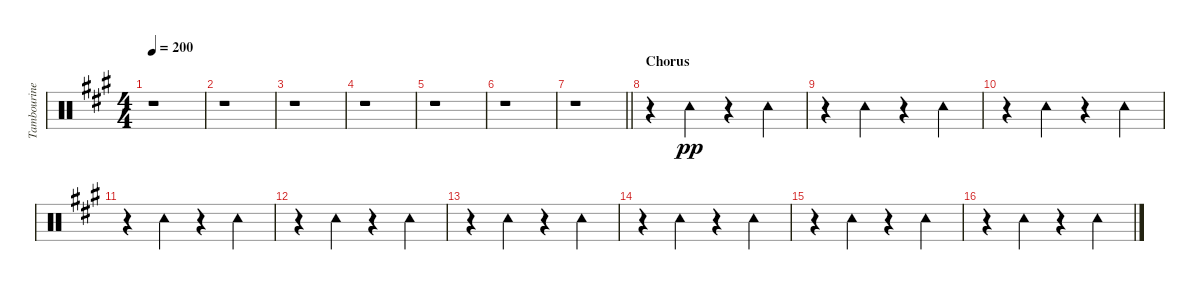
\track ("Tambourine" "Tambourine") {instrument percussion}
\staff {score}
\articulation defaults
\ts (4 4)
\tempo 200
\clef neutral
\ks a
r.1{dy pp} |
r.1 |
r.1 |
r.1 |
r.1 |
r.1 |
\barLineRight lightlight
r.1 |
\section ("" "Chorus")
r.4 "Tambourine (hit)".4 r.4 "Tambourine (hit)".4 |
r.4 "Tambourine (hit)".4 r.4 "Tambourine (hit)".4 |
r.4 "Tambourine (hit)".4 r.4 "Tambourine (hit)".4 |
r.4 "Tambourine (hit)".4 r.4 "Tambourine (hit)".4 |
r.4 "Tambourine (hit)".4 r.4 "Tambourine (hit)".4 |
r.4 "Tambourine (hit)".4 r.4 "Tambourine (hit)".4 |
r.4 "Tambourine (hit)".4 r.4 "Tambourine (hit)".4 |
r.4 "Tambourine (hit)".4 r.4 "Tambourine (hit)".4 |
r.4 "Tambourine (hit)".4 r.4 "Tambourine (hit)".4
